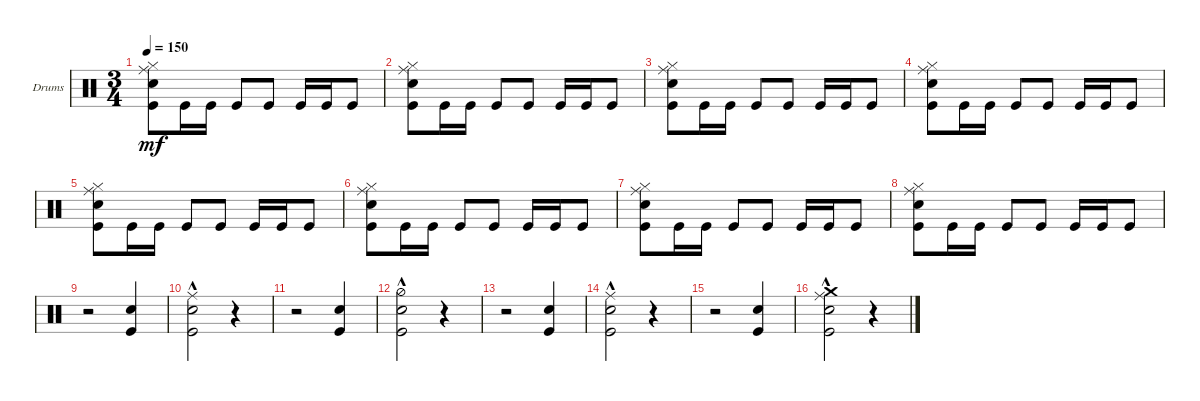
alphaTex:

\defaultSystemsLayout 4
\bracketExtendMode groupsimilarinstruments
\firstSystemTrackNameOrientation horizontal
\otherSystemsTrackNameOrientation horizontal
\track ("Drumkit" "Drums") {instrument percussion}
\staff {score}
\articulation defaults
\ts (3 4)
\tempo 150
\clef neutral
\ks c
("Kick (hit)" "Snare (hit) 2" "Ride (middle)" "Hi-Hat (closed)").8{dy mf} "Kick (hit)".16 "Kick (hit)".16 "Kick (hit)".8 "Kick (hit)".8 "Kick (hit)".16 "Kick (hit)".16 "Kick (hit)".8 |
("Kick (hit)" "Snare (hit) 2" "Ride (middle)" "Hi-Hat (closed)").8 "Kick (hit)".16 "Kick (hit)".16 "Kick (hit)".8 "Kick (hit)".8 "Kick (hit)".16 "Kick (hit)".16 "Kick (hit)".8 |
("Kick (hit)" "Snare (hit) 2" "Ride (middle)" "Hi-Hat (closed)").8 "Kick (hit)".16 "Kick (hit)".16 "Kick (hit)".8 "Kick (hit)".8 "Kick (hit)".16 "Kick (hit)".16 "Kick (hit)".8 |
("Kick (hit)" "Snare (hit) 2" "Ride (middle)" "Hi-Hat (closed)").8 "Kick (hit)".16 "Kick (hit)".16 "Kick (hit)".8 "Kick (hit)".8 "Kick (hit)".16 "Kick (hit)".16 "Kick (hit)".8 |
("Kick (hit)" "Snare (hit) 2" "Ride (middle)" "Hi-Hat (closed)").8 "Kick (hit)".16 "Kick (hit)".16 "Kick (hit)".8 "Kick (hit)".8 "Kick (hit)".16 "Kick (hit)".16 "Kick (hit)".8 |
("Kick (hit)" "Snare (hit) 2" "Ride (middle)" "Hi-Hat (closed)").8 "Kick (hit)".16 "Kick (hit)".16 "Kick (hit)".8 "Kick (hit)".8 "Kick (hit)".16 "Kick (hit)".16 "Kick (hit)".8 |
("Kick (hit)" "Snare (hit) 2" "Ride (middle)" "Hi-Hat (closed)").8 "Kick (hit)".16 "Kick (hit)".16 "Kick (hit)".8 "Kick (hit)".8 "Kick (hit)".16 "Kick (hit)".16 "Kick (hit)".8 |
("Kick (hit)" "Snare (hit) 2" "Ride (middle)" "Hi-Hat (closed)").8 "Kick (hit)".16 "Kick (hit)".16 "Kick (hit)".8 "Kick (hit)".8 "Kick (hit)".16 "Kick (hit)".16 "Kick (hit)".8 |
r.2 ("Kick (hit)" "Snare (hit) 2").4 |
("Kick (hit)"{hac} "Snare (hit) 2"{hac} "Ride (middle)"{hac}).2 r.4 |
r.2 ("Kick (hit)" "Snare (hit) 2").4 |
("Kick (hit)"{hac} "Snare (hit) 2"{hac} "Hi-Hat (half)"{hac}).2 r.4 |
r.2 ("Kick (hit)" "Snare (hit) 2").4 |
("Kick (hit)"{hac} "Snare (hit) 2"{hac} "Ride (middle)"{hac}).2 r.4 |
r.2 ("Kick (hit)" "Snare (hit) 2").4 |
("Kick (hit)"{hac} "Snare (hit) 2"{hac} "Ride (middle)"{hac} "Crash medium (hit)"{hac}).2 r.4
